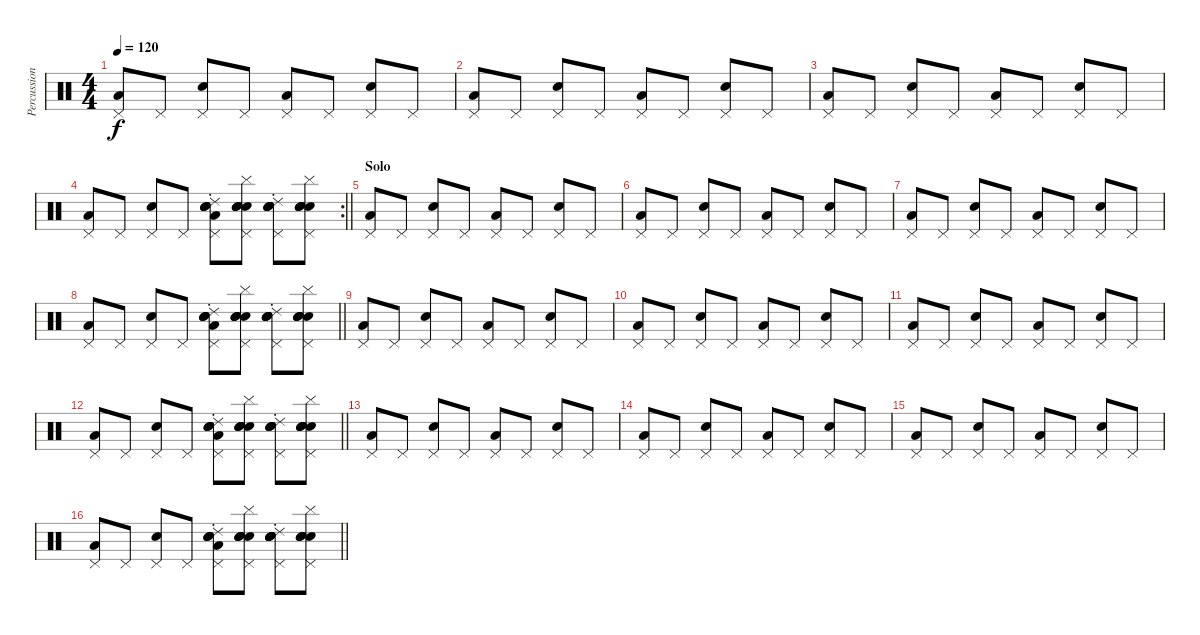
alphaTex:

\track ("Percussion" "Percussion") {instrument percussion}
\staff {score}
\articulation defaults
\ts (4 4)
\tempo 120
\clef neutral
\ks c
("Pedal Hi-Hat (hit)" "Low Floor Tom (hit)").8{dy f} "Pedal Hi-Hat (hit)".8 ("Pedal Hi-Hat (hit)" "Electric Snare (hit)").8 "Pedal Hi-Hat (hit)".8 ("Pedal Hi-Hat (hit)" "Low Floor Tom (hit)").8 "Pedal Hi-Hat (hit)".8 ("Pedal Hi-Hat (hit)" "Electric Snare (hit)").8 "Pedal Hi-Hat (hit)".8 |
("Pedal Hi-Hat (hit)" "Low Floor Tom (hit)").8 "Pedal Hi-Hat (hit)".8 ("Pedal Hi-Hat (hit)" "Electric Snare (hit)").8 "Pedal Hi-Hat (hit)".8 ("Pedal Hi-Hat (hit)" "Low Floor Tom (hit)").8 "Pedal Hi-Hat (hit)".8 ("Pedal Hi-Hat (hit)" "Electric Snare (hit)").8 "Pedal Hi-Hat (hit)".8 |
("Pedal Hi-Hat (hit)" "Low Floor Tom (hit)").8 "Pedal Hi-Hat (hit)".8 ("Pedal Hi-Hat (hit)" "Electric Snare (hit)").8 "Pedal Hi-Hat (hit)".8 ("Pedal Hi-Hat (hit)" "Low Floor Tom (hit)").8 "Pedal Hi-Hat (hit)".8 ("Pedal Hi-Hat (hit)" "Electric Snare (hit)").8 "Pedal Hi-Hat (hit)".8 |
\rc 2
\barLineRight lightlight
("Pedal Hi-Hat (hit)" "Low Floor Tom (hit)").8 "Pedal Hi-Hat (hit)".8 ("Pedal Hi-Hat (hit)" "Electric Snare (hit)").8 "Pedal Hi-Hat (hit)".8 ("Ride (choke) 2" "Electric Snare (hit)" "Electric Snare (hit)" "Pedal Hi-Hat (hit)" "Electric Snare (hit)" "Low Floor Tom (hit)").8 ("Cymbal (hit)" "Electric Snare (hit)" "Electric Snare (hit)" "Pedal Hi-Hat (hit)" "Electric Snare (hit)" "Electric Snare (hit)").8 ("Ride (choke) 2" "Electric Snare (hit)" "Electric Snare (hit)" "Pedal Hi-Hat (hit)" "Electric Snare (hit)" "Electric Snare (hit)").8 ("Cymbal (hit)" "Electric Snare (hit)" "Electric Snare (hit)" "Pedal Hi-Hat (hit)" "Electric Snare (hit)" "Electric Snare (hit)").8 |
\section ("" "Solo")
("Pedal Hi-Hat (hit)" "Low Floor Tom (hit)").8 "Pedal Hi-Hat (hit)".8 ("Pedal Hi-Hat (hit)" "Electric Snare (hit)").8 "Pedal Hi-Hat (hit)".8 ("Pedal Hi-Hat (hit)" "Low Floor Tom (hit)").8 "Pedal Hi-Hat (hit)".8 ("Pedal Hi-Hat (hit)" "Electric Snare (hit)").8 "Pedal Hi-Hat (hit)".8 |
("Pedal Hi-Hat (hit)" "Low Floor Tom (hit)").8 "Pedal Hi-Hat (hit)".8 ("Pedal Hi-Hat (hit)" "Electric Snare (hit)").8 "Pedal Hi-Hat (hit)".8 ("Pedal Hi-Hat (hit)" "Low Floor Tom (hit)").8 "Pedal Hi-Hat (hit)".8 ("Pedal Hi-Hat (hit)" "Electric Snare (hit)").8 "Pedal Hi-Hat (hit)".8 |
("Pedal Hi-Hat (hit)" "Low Floor Tom (hit)").8 "Pedal Hi-Hat (hit)".8 ("Pedal Hi-Hat (hit)" "Electric Snare (hit)").8 "Pedal Hi-Hat (hit)".8 ("Pedal Hi-Hat (hit)" "Low Floor Tom (hit)").8 "Pedal Hi-Hat (hit)".8 ("Pedal Hi-Hat (hit)" "Electric Snare (hit)").8 "Pedal Hi-Hat (hit)".8 |
\barLineRight lightlight
("Pedal Hi-Hat (hit)" "Low Floor Tom (hit)").8 "Pedal Hi-Hat (hit)".8 ("Pedal Hi-Hat (hit)" "Electric Snare (hit)").8 "Pedal Hi-Hat (hit)".8 ("Ride (choke) 2" "Electric Snare (hit)" "Electric Snare (hit)" "Pedal Hi-Hat (hit)" "Electric Snare (hit)" "Low Floor Tom (hit)").8 ("Cymbal (hit)" "Electric Snare (hit)" "Electric Snare (hit)" "Pedal Hi-Hat (hit)" "Electric Snare (hit)" "Electric Snare (hit)").8 ("Ride (choke) 2" "Electric Snare (hit)" "Electric Snare (hit)" "Pedal Hi-Hat (hit)" "Electric Snare (hit)" "Electric Snare (hit)").8 ("Cymbal (hit)" "Electric Snare (hit)" "Electric Snare (hit)" "Pedal Hi-Hat (hit)" "Electric Snare (hit)" "Electric Snare (hit)").8 |
("Pedal Hi-Hat (hit)" "Low Floor Tom (hit)").8 "Pedal Hi-Hat (hit)".8 ("Pedal Hi-Hat (hit)" "Electric Snare (hit)").8 "Pedal Hi-Hat (hit)".8 ("Pedal Hi-Hat (hit)" "Low Floor Tom (hit)").8 "Pedal Hi-Hat (hit)".8 ("Pedal Hi-Hat (hit)" "Electric Snare (hit)").8 "Pedal Hi-Hat (hit)".8 |
("Pedal Hi-Hat (hit)" "Low Floor Tom (hit)").8 "Pedal Hi-Hat (hit)".8 ("Pedal Hi-Hat (hit)" "Electric Snare (hit)").8 "Pedal Hi-Hat (hit)".8 ("Pedal Hi-Hat (hit)" "Low Floor Tom (hit)").8 "Pedal Hi-Hat (hit)".8 ("Pedal Hi-Hat (hit)" "Electric Snare (hit)").8 "Pedal Hi-Hat (hit)".8 |
("Pedal Hi-Hat (hit)" "Low Floor Tom (hit)").8 "Pedal Hi-Hat (hit)".8 ("Pedal Hi-Hat (hit)" "Electric Snare (hit)").8 "Pedal Hi-Hat (hit)".8 ("Pedal Hi-Hat (hit)" "Low Floor Tom (hit)").8 "Pedal Hi-Hat (hit)".8 ("Pedal Hi-Hat (hit)" "Electric Snare (hit)").8 "Pedal Hi-Hat (hit)".8 |
\barLineRight lightlight
("Pedal Hi-Hat (hit)" "Low Floor Tom (hit)").8 "Pedal Hi-Hat (hit)".8 ("Pedal Hi-Hat (hit)" "Electric Snare (hit)").8 "Pedal Hi-Hat (hit)".8 ("Ride (choke) 2" "Electric Snare (hit)" "Electric Snare (hit)" "Pedal Hi-Hat (hit)" "Electric Snare (hit)" "Low Floor Tom (hit)").8 ("Cymbal (hit)" "Electric Snare (hit)" "Electric Snare (hit)" "Pedal Hi-Hat (hit)" "Electric Snare (hit)" "Electric Snare (hit)").8 ("Ride (choke) 2" "Electric Snare (hit)" "Electric Snare (hit)" "Pedal Hi-Hat (hit)" "Electric Snare (hit)" "Electric Snare (hit)").8 ("Cymbal (hit)" "Electric Snare (hit)" "Electric Snare (hit)" "Pedal Hi-Hat (hit)" "Electric Snare (hit)" "Electric Snare (hit)").8 |
("Pedal Hi-Hat (hit)" "Low Floor Tom (hit)").8 "Pedal Hi-Hat (hit)".8 ("Pedal Hi-Hat (hit)" "Electric Snare (hit)").8 "Pedal Hi-Hat (hit)".8 ("Pedal Hi-Hat (hit)" "Low Floor Tom (hit)").8 "Pedal Hi-Hat (hit)".8 ("Pedal Hi-Hat (hit)" "Electric Snare (hit)").8 "Pedal Hi-Hat (hit)".8 |
("Pedal Hi-Hat (hit)" "Low Floor Tom (hit)").8 "Pedal Hi-Hat (hit)".8 ("Pedal Hi-Hat (hit)" "Electric Snare (hit)").8 "Pedal Hi-Hat (hit)".8 ("Pedal Hi-Hat (hit)" "Low Floor Tom (hit)").8 "Pedal Hi-Hat (hit)".8 ("Pedal Hi-Hat (hit)" "Electric Snare (hit)").8 "Pedal Hi-Hat (hit)".8 |
("Pedal Hi-Hat (hit)" "Low Floor Tom (hit)").8 "Pedal Hi-Hat (hit)".8 ("Pedal Hi-Hat (hit)" "Electric Snare (hit)").8 "Pedal Hi-Hat (hit)".8 ("Pedal Hi-Hat (hit)" "Low Floor Tom (hit)").8 "Pedal Hi-Hat (hit)".8 ("Pedal Hi-Hat (hit)" "Electric Snare (hit)").8 "Pedal Hi-Hat (hit)".8 |
\barLineRight lightlight
("Pedal Hi-Hat (hit)" "Low Floor Tom (hit)").8 "Pedal Hi-Hat (hit)".8 ("Pedal Hi-Hat (hit)" "Electric Snare (hit)").8 "Pedal Hi-Hat (hit)".8 ("Ride (choke) 2" "Electric Snare (hit)" "Electric Snare (hit)" "Pedal Hi-Hat (hit)" "Electric Snare (hit)" "Low Floor Tom (hit)").8 ("Cymbal (hit)" "Electric Snare (hit)" "Electric Snare (hit)" "Pedal Hi-Hat (hit)" "Electric Snare (hit)" "Electric Snare (hit)").8 ("Ride (choke) 2" "Electric Snare (hit)" "Electric Snare (hit)" "Pedal Hi-Hat (hit)" "Electric Snare (hit)" "Electric Snare (hit)").8 ("Cymbal (hit)" "Electric Snare (hit)" "Electric Snare (hit)" "Pedal Hi-Hat (hit)" "Electric Snare (hit)" "Electric Snare (hit)").8
